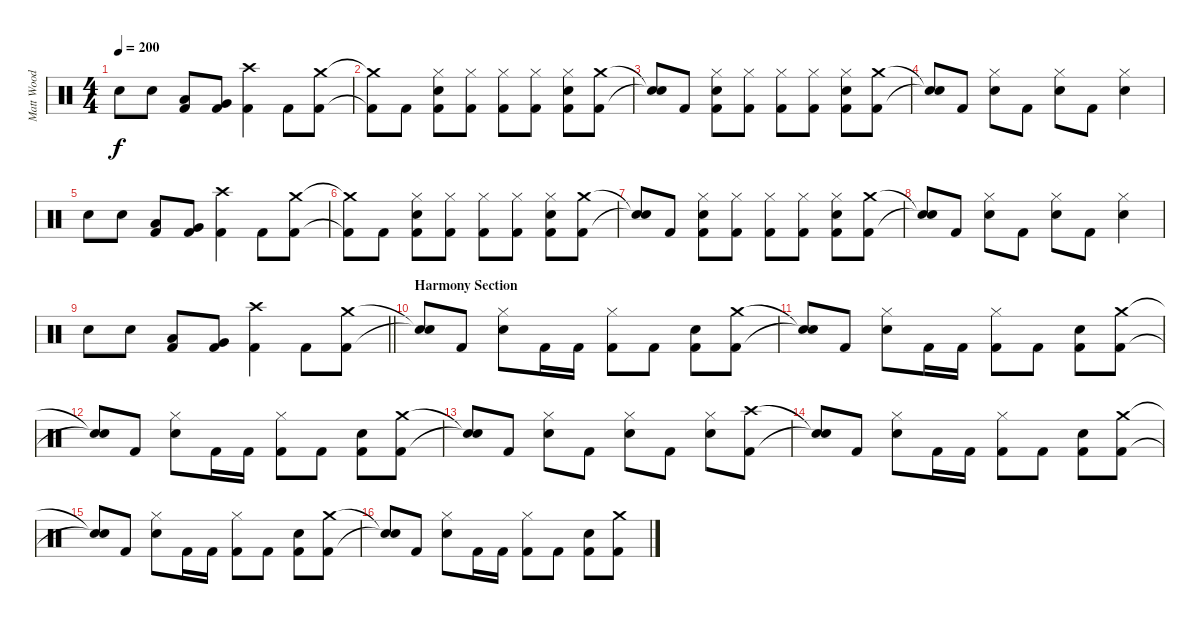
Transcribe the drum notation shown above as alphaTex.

\track ("Matt Wood" "Matt Wood") {instrument percussion}
\staff {score}
\articulation defaults
\ts (4 4)
\tempo 200
\clef neutral
\ks c "Snare (hit) 2".8{dy f} "Snare (hit) 2".8
("Low Tom (hit)" "Kick (hit) 2").8 ("Very Low Tom (hit)" "Kick (hit) 2").8 ("Crash high (hit)" "Kick (hit) 2").4 "Kick (hit) 2".8 ("Crash medium (hit)" "Kick (hit) 2").8 |
("Crash medium (hit)"{t} "Kick (hit) 2"{t}).8 "Kick (hit) 2".8 ("Hi-Hat (closed)" "Snare (hit) 2" "Kick (hit) 2").8 ("Hi-Hat (closed)" "Kick (hit) 2").8 ("Hi-Hat (closed)" "Kick (hit) 2").8 ("Hi-Hat (closed)" "Kick (hit) 2").8 ("Hi-Hat (closed)" "Snare (hit) 2" "Kick (hit) 2").8 ("Crash medium (hit)" "Kick (hit) 2").8 |
("Snare (hit)"{t} "Snare (hit)"{t}).8 "Kick (hit) 2".8 ("Hi-Hat (closed)" "Snare (hit) 2" "Kick (hit) 2").8 ("Hi-Hat (closed)" "Kick (hit) 2").8 ("Hi-Hat (closed)" "Kick (hit) 2").8 ("Hi-Hat (closed)" "Kick (hit) 2").8 ("Hi-Hat (closed)" "Snare (hit) 2" "Kick (hit) 2").8 ("Crash medium (hit)" "Kick (hit) 2").8 |
("Snare (hit)"{t} "Snare (hit)"{t}).8 "Kick (hit) 2".8 ("Hi-Hat (closed)" "Snare (hit) 2").8 "Kick (hit) 2".8 ("Hi-Hat (closed)" "Snare (hit) 2").8 "Kick (hit) 2".8 ("Hi-Hat (closed)" "Snare (hit) 2").4 |
"Snare (hit) 2".8 "Snare (hit) 2".8 ("Low Tom (hit)" "Kick (hit) 2").8 ("Very Low Tom (hit)" "Kick (hit) 2").8 ("Crash high (hit)" "Kick (hit) 2").4 "Kick (hit) 2".8 ("Crash medium (hit)" "Kick (hit) 2").8 |
("Crash medium (hit)"{t} "Kick (hit) 2"{t}).8 "Kick (hit) 2".8 ("Hi-Hat (closed)" "Snare (hit) 2" "Kick (hit) 2").8 ("Hi-Hat (closed)" "Kick (hit) 2").8 ("Hi-Hat (closed)" "Kick (hit) 2").8 ("Hi-Hat (closed)" "Kick (hit) 2").8 ("Hi-Hat (closed)" "Snare (hit) 2" "Kick (hit) 2").8 ("Crash medium (hit)" "Kick (hit) 2").8 |
("Snare (hit)"{t} "Snare (hit)"{t}).8 "Kick (hit) 2".8 ("Hi-Hat (closed)" "Snare (hit) 2" "Kick (hit) 2").8 ("Hi-Hat (closed)" "Kick (hit) 2").8 ("Hi-Hat (closed)" "Kick (hit) 2").8 ("Hi-Hat (closed)" "Kick (hit) 2").8 ("Hi-Hat (closed)" "Snare (hit) 2" "Kick (hit) 2").8 ("Crash medium (hit)" "Kick (hit) 2").8 |
("Snare (hit)"{t} "Snare (hit)"{t}).8 "Kick (hit) 2".8 ("Hi-Hat (closed)" "Snare (hit) 2").8 "Kick (hit) 2".8 ("Hi-Hat (closed)" "Snare (hit) 2").8 "Kick (hit) 2".8 ("Hi-Hat (closed)" "Snare (hit) 2").4 |
\barLineRight lightlight "Snare (hit) 2".8 "Snare (hit) 2".8
("Low Tom (hit)" "Kick (hit) 2").8 ("Very Low Tom (hit)" "Kick (hit) 2").8 ("Crash high (hit)" "Kick (hit) 2").4 "Kick (hit) 2".8 ("Crash medium (hit)" "Kick (hit) 2").8 |
\section ("" "Harmony Section")
("Snare (hit)"{t} "Snare (hit)"{t}).8 "Kick (hit) 2".8 ("Hi-Hat (closed)" "Snare (hit) 2").8 "Kick (hit) 2".16 "Kick (hit) 2".16 ("Hi-Hat (closed)" "Kick (hit) 2").8 "Kick (hit) 2".8 ("Snare (hit) 2" "Kick (hit) 2").8 ("Crash medium (hit)" "Kick (hit) 2").8 |
("Snare (hit)"{t} "Snare (hit)"{t}).8 "Kick (hit) 2".8 ("Hi-Hat (closed)" "Snare (hit) 2").8 "Kick (hit) 2".16 "Kick (hit) 2".16 ("Hi-Hat (closed)" "Kick (hit) 2").8 "Kick (hit) 2".8 ("Snare (hit) 2" "Kick (hit) 2").8 ("Crash medium (hit)" "Kick (hit) 2").8 |
("Snare (hit)"{t} "Snare (hit)"{t}).8 "Kick (hit) 2".8 ("Hi-Hat (closed)" "Snare (hit) 2").8 "Kick (hit) 2".16 "Kick (hit) 2".16 ("Hi-Hat (closed)" "Kick (hit) 2").8 "Kick (hit) 2".8 ("Snare (hit) 2" "Kick (hit) 2").8 ("Crash medium (hit)" "Kick (hit) 2").8 |
("Snare (hit)"{t} "Snare (hit)"{t}).8 "Kick (hit) 2".8 ("Hi-Hat (closed)" "Snare (hit) 2").8 "Kick (hit) 2".8 ("Hi-Hat (closed)" "Snare (hit) 2").8 "Kick (hit) 2".8 ("Hi-Hat (closed)" "Snare (hit) 2").8 ("Crash high (hit)" "Kick (hit) 2").8 |
("Snare (hit)"{t} "Snare (hit)"{t}).8 "Kick (hit) 2".8 ("Hi-Hat (closed)" "Snare (hit) 2").8 "Kick (hit) 2".16 "Kick (hit) 2".16 ("Hi-Hat (closed)" "Kick (hit) 2").8 "Kick (hit) 2".8 ("Snare (hit) 2" "Kick (hit) 2").8 ("Crash medium (hit)" "Kick (hit) 2").8 |
("Snare (hit)"{t} "Snare (hit)"{t}).8 "Kick (hit) 2".8 ("Hi-Hat (closed)" "Snare (hit) 2").8 "Kick (hit) 2".16 "Kick (hit) 2".16 ("Hi-Hat (closed)" "Kick (hit) 2").8 "Kick (hit) 2".8 ("Snare (hit) 2" "Kick (hit) 2").8 ("Crash medium (hit)" "Kick (hit) 2").8 |
("Snare (hit)"{t} "Snare (hit)"{t}).8 "Kick (hit) 2".8 ("Hi-Hat (closed)" "Snare (hit) 2").8 "Kick (hit) 2".16 "Kick (hit) 2".16 ("Hi-Hat (closed)" "Kick (hit) 2").8 "Kick (hit) 2".8 ("Snare (hit) 2" "Kick (hit) 2").8 ("Crash medium (hit)" "Kick (hit) 2").8
